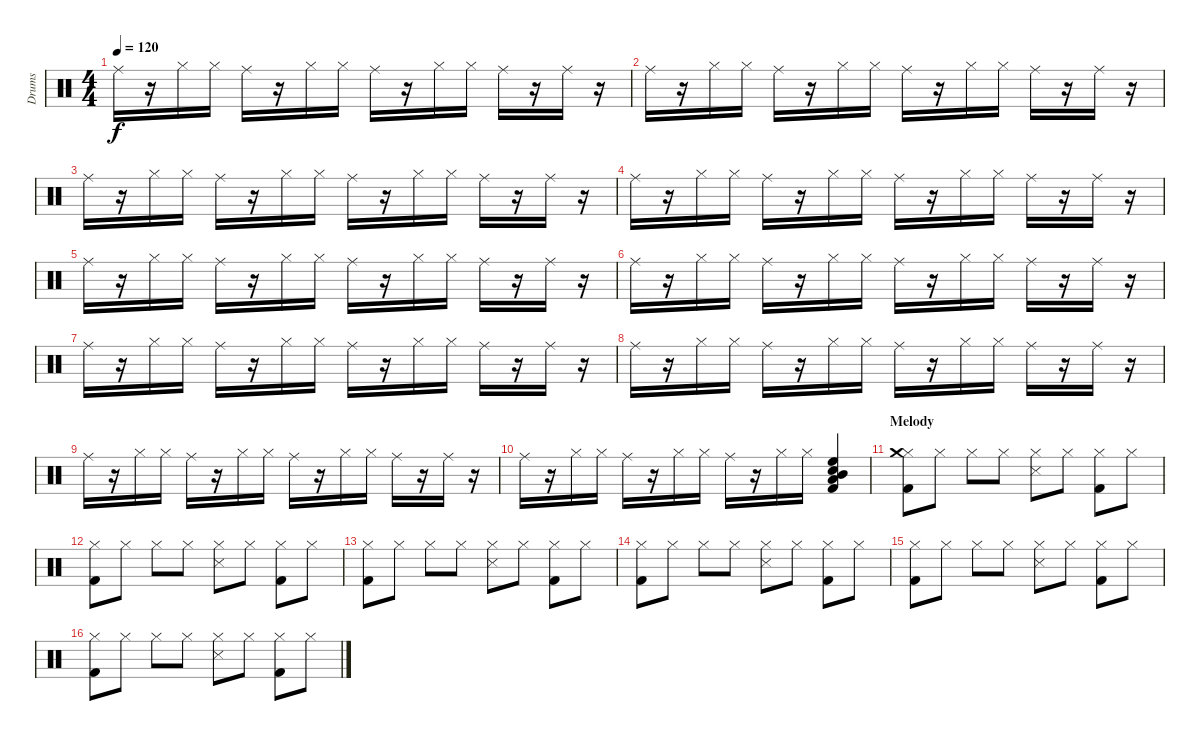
\track ("Drums" "Drums") {instrument percussion}
\staff {score}
\articulation defaults
\ts (4 4)
\tempo 120
\clef neutral
\ks c "Ride (middle)".16{dy f}
r.16 "Hi-Hat (closed)".16 "Hi-Hat (closed)".16 "Ride (middle)".16 r.16 "Hi-Hat (closed)".16 "Hi-Hat (closed)".16 "Ride (middle)".16 r.16 "Hi-Hat (closed)".16 "Hi-Hat (closed)".16 "Ride (middle)".16 r.16 "Ride (middle)".16 r.16 |
"Ride (middle)".16 r.16 "Hi-Hat (closed)".16 "Hi-Hat (closed)".16 "Ride (middle)".16 r.16 "Hi-Hat (closed)".16 "Hi-Hat (closed)".16 "Ride (middle)".16 r.16 "Hi-Hat (closed)".16 "Hi-Hat (closed)".16 "Ride (middle)".16 r.16 "Ride (middle)".16 r.16 |
"Ride (middle)".16 r.16 "Hi-Hat (closed)".16 "Hi-Hat (closed)".16 "Ride (middle)".16 r.16 "Hi-Hat (closed)".16 "Hi-Hat (closed)".16 "Ride (middle)".16 r.16 "Hi-Hat (closed)".16 "Hi-Hat (closed)".16 "Ride (middle)".16 r.16 "Ride (middle)".16 r.16 |
"Ride (middle)".16 r.16 "Hi-Hat (closed)".16 "Hi-Hat (closed)".16 "Ride (middle)".16 r.16 "Hi-Hat (closed)".16 "Hi-Hat (closed)".16 "Ride (middle)".16 r.16 "Hi-Hat (closed)".16 "Hi-Hat (closed)".16 "Ride (middle)".16 r.16 "Ride (middle)".16 r.16 |
"Ride (middle)".16 r.16 "Hi-Hat (closed)".16 "Hi-Hat (closed)".16 "Ride (middle)".16 r.16 "Hi-Hat (closed)".16 "Hi-Hat (closed)".16 "Ride (middle)".16 r.16 "Hi-Hat (closed)".16 "Hi-Hat (closed)".16 "Ride (middle)".16 r.16 "Ride (middle)".16 r.16 |
"Ride (middle)".16 r.16 "Hi-Hat (closed)".16 "Hi-Hat (closed)".16 "Ride (middle)".16 r.16 "Hi-Hat (closed)".16 "Hi-Hat (closed)".16 "Ride (middle)".16 r.16 "Hi-Hat (closed)".16 "Hi-Hat (closed)".16 "Ride (middle)".16 r.16 "Ride (middle)".16 r.16 |
"Ride (middle)".16 r.16 "Hi-Hat (closed)".16 "Hi-Hat (closed)".16 "Ride (middle)".16 r.16 "Hi-Hat (closed)".16 "Hi-Hat (closed)".16 "Ride (middle)".16 r.16 "Hi-Hat (closed)".16 "Hi-Hat (closed)".16 "Ride (middle)".16 r.16 "Ride (middle)".16 r.16 |
"Ride (middle)".16 r.16 "Hi-Hat (closed)".16 "Hi-Hat (closed)".16 "Ride (middle)".16 r.16 "Hi-Hat (closed)".16 "Hi-Hat (closed)".16 "Ride (middle)".16 r.16 "Hi-Hat (closed)".16 "Hi-Hat (closed)".16 "Ride (middle)".16 r.16 "Ride (middle)".16 r.16 |
"Ride (middle)".16 r.16 "Hi-Hat (closed)".16 "Hi-Hat (closed)".16 "Ride (middle)".16 r.16 "Hi-Hat (closed)".16 "Hi-Hat (closed)".16 "Ride (middle)".16 r.16 "Hi-Hat (closed)".16 "Hi-Hat (closed)".16 "Ride (middle)".16 r.16 "Ride (middle)".16 r.16 |
"Ride (middle)".16 r.16 "Hi-Hat (closed)".16 "Hi-Hat (closed)".16 "Ride (middle)".16 r.16 "Hi-Hat (closed)".16 "Hi-Hat (closed)".16 "Ride (middle)".16 r.16 "Hi-Hat (closed)".16 "Hi-Hat (closed)".16 ("Mid Tom (hit)" "Low Tom (hit)" "Snare (hit) 2" "High Floor Tom (hit)" "Kick (hit) 2").4 |
\section ("" "Melody")
("Hi-Hat (closed)" "Kick (hit) 2" "Crash medium (hit)").8 "Hi-Hat (closed)".8 "Hi-Hat (closed)".8 "Hi-Hat (closed)".8 ("Hi-Hat (closed)" "Snare (side stick) 3").8 "Hi-Hat (closed)".8 ("Hi-Hat (closed)" "Kick (hit) 2").8 "Hi-Hat (closed)".8 |
("Hi-Hat (closed)" "Kick (hit) 2").8 "Hi-Hat (closed)".8 "Hi-Hat (closed)".8 "Hi-Hat (closed)".8 ("Hi-Hat (closed)" "Snare (side stick) 3").8 "Hi-Hat (closed)".8 ("Hi-Hat (closed)" "Kick (hit) 2").8 "Hi-Hat (closed)".8 |
("Hi-Hat (closed)" "Kick (hit) 2").8 "Hi-Hat (closed)".8 "Hi-Hat (closed)".8 "Hi-Hat (closed)".8 ("Hi-Hat (closed)" "Snare (side stick) 3").8 "Hi-Hat (closed)".8 ("Hi-Hat (closed)" "Kick (hit) 2").8 "Hi-Hat (closed)".8 |
("Hi-Hat (closed)" "Kick (hit) 2").8 "Hi-Hat (closed)".8 "Hi-Hat (closed)".8 "Hi-Hat (closed)".8 ("Hi-Hat (closed)" "Snare (side stick) 3").8 "Hi-Hat (closed)".8 ("Hi-Hat (closed)" "Kick (hit) 2").8 "Hi-Hat (closed)".8 |
("Hi-Hat (closed)" "Kick (hit) 2").8 "Hi-Hat (closed)".8 "Hi-Hat (closed)".8 "Hi-Hat (closed)".8 ("Hi-Hat (closed)" "Snare (side stick) 3").8 "Hi-Hat (closed)".8 ("Hi-Hat (closed)" "Kick (hit) 2").8 "Hi-Hat (closed)".8 |
("Hi-Hat (closed)" "Kick (hit) 2").8 "Hi-Hat (closed)".8 "Hi-Hat (closed)".8 "Hi-Hat (closed)".8 ("Hi-Hat (closed)" "Snare (side stick) 3").8 "Hi-Hat (closed)".8 ("Hi-Hat (closed)" "Kick (hit) 2").8 "Hi-Hat (closed)".8
